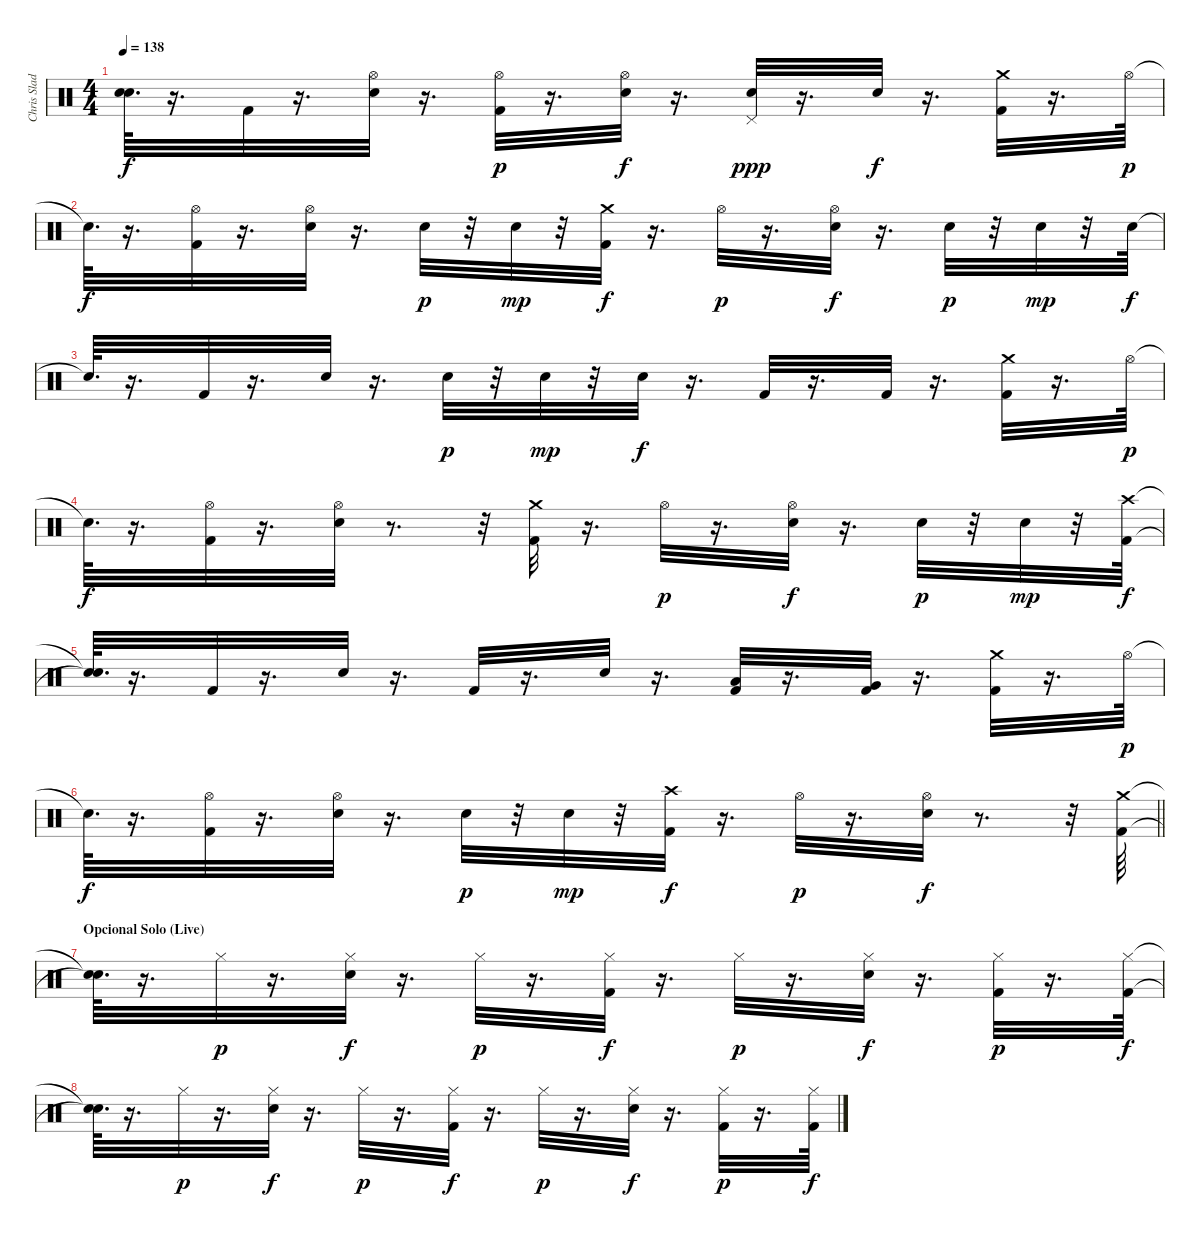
\track ("Chris Slade" "Chris Slad") {instrument percussion}
\staff {score}
\articulation defaults
\ts (4 4)
\tempo 138
\clef neutral
\ks c
("Snare (hit)"{t} "Snare (hit)"{t}).64{d dy f} r.16{d} "Kick (hit) 2".32 r.16{d} ("Hi-Hat (open)" "Electric Snare (hit)").32 r.16{d} ("Hi-Hat (open)" "Kick (hit) 2").32{dy p} r.16{d} ("Hi-Hat (open)" "Electric Snare (hit)").32{dy f} r.16{d} ("Electric Snare (hit)" "Pedal Hi-Hat (hit)").32{dy ppp} r.16{d} "Electric Snare (hit)".32{dy f} r.16{d} ("Crash medium (hit)" "Kick (hit) 2").32 r.16{d} "Hi-Hat (open)".64{dy p} |
"Snare (hit)"{t}.64{d dy f} r.16{d} ("Hi-Hat (open)" "Kick (hit) 2").32 r.16{d} ("Hi-Hat (open)" "Electric Snare (hit)").32 r.16{d} "Electric Snare (hit)".32{dy p} r.32 "Electric Snare (hit)".32{dy mp} r.32 ("Kick (hit) 2" "Crash medium (hit)").32{dy f} r.16{d} "Hi-Hat (open)".32{dy p} r.16{d} ("Hi-Hat (open)" "Electric Snare (hit)").32{dy f} r.16{d} "Electric Snare (hit)".32{dy p} r.32 "Electric Snare (hit)".32{dy mp} r.32 "Electric Snare (hit)".64{dy f} |
"Snare (hit)"{t}.64{d} r.16{d} "Kick (hit) 2".32 r.16{d} "Electric Snare (hit)".32 r.16{d} "Electric Snare (hit)".32{dy p} r.32 "Electric Snare (hit)".32{dy mp} r.32 "Electric Snare (hit)".32{dy f} r.16{d} "Kick (hit) 2".32 r.16{d} "Kick (hit) 2".32 r.16{d} ("Crash medium (hit)" "Kick (hit) 2").32 r.16{d} "Hi-Hat (open)".64{dy p} |
"Snare (hit)"{t}.64{d dy f} r.16{d} ("Hi-Hat (open)" "Kick (hit) 2").32 r.16{d} ("Hi-Hat (open)" "Electric Snare (hit)").32 r.8{d} r.32 ("Crash medium (hit)" "Kick (hit) 2").32 r.16{d} "Hi-Hat (open)".32{dy p} r.16{d} ("Hi-Hat (open)" "Electric Snare (hit)").32{dy f} r.16{d} "Electric Snare (hit)".32{dy p} r.32 "Electric Snare (hit)".32{dy mp} r.32 ("Crash high (hit)" "Kick (hit) 2").64{dy f} |
("Snare (hit)"{t} "Snare (hit)"{t}).64{d} r.16{d} "Kick (hit) 2".32 r.16{d} "Electric Snare (hit)".32 r.16{d} "Kick (hit) 2".32 r.16{d} "Electric Snare (hit)".32 r.16{d} ("Low Tom (hit)" "Kick (hit) 2").32 r.16{d} ("Very Low Tom (hit)" "Kick (hit) 2").32 r.16{d} ("Crash medium (hit)" "Kick (hit) 2").32 r.16{d} "Hi-Hat (open)".64{dy p} |
\barLineRight lightlight "Snare (hit)"{t}.64{d dy f}
r.16{d} ("Hi-Hat (open)" "Kick (hit) 2").32 r.16{d} ("Hi-Hat (open)" "Electric Snare (hit)").32 r.16{d} "Electric Snare (hit)".32{dy p} r.32 "Electric Snare (hit)".32{dy mp} r.32 ("Crash high (hit)" "Kick (hit) 2").32{dy f} r.16{d} "Hi-Hat (open)".32{dy p} r.16{d} ("Hi-Hat (open)" "Electric Snare (hit)").32{dy f} r.8{d} r.32 ("Crash medium (hit)" "Kick (hit) 2").64 |
\section ("" "Opcional Solo (Live)")
("Snare (hit)"{t} "Snare (hit)"{t}).64{d} r.16{d} "Hi-Hat (closed)".32{dy p} r.16{d} ("Hi-Hat (closed)" "Electric Snare (hit)").32{dy f} r.16{d} "Hi-Hat (closed)".32{dy p} r.16{d} ("Hi-Hat (closed)" "Kick (hit) 2").32{dy f} r.16{d} "Hi-Hat (closed)".32{dy p} r.16{d} ("Hi-Hat (closed)" "Electric Snare (hit)").32{dy f} r.16{d} ("Hi-Hat (closed)" "Kick (hit) 2").32{dy p} r.16{d} ("Hi-Hat (closed)" "Kick (hit) 2").64{dy f} |
("Snare (hit)"{t} "Snare (hit)"{t}).64{d} r.16{d} "Hi-Hat (closed)".32{dy p} r.16{d} ("Hi-Hat (closed)" "Electric Snare (hit)").32{dy f} r.16{d} "Hi-Hat (closed)".32{dy p} r.16{d} ("Hi-Hat (closed)" "Kick (hit) 2").32{dy f} r.16{d} "Hi-Hat (closed)".32{dy p} r.16{d} ("Hi-Hat (closed)" "Electric Snare (hit)").32{dy f} r.16{d} ("Hi-Hat (closed)" "Kick (hit) 2").32{dy p} r.16{d} ("Hi-Hat (closed)" "Kick (hit) 2").64{dy f}
